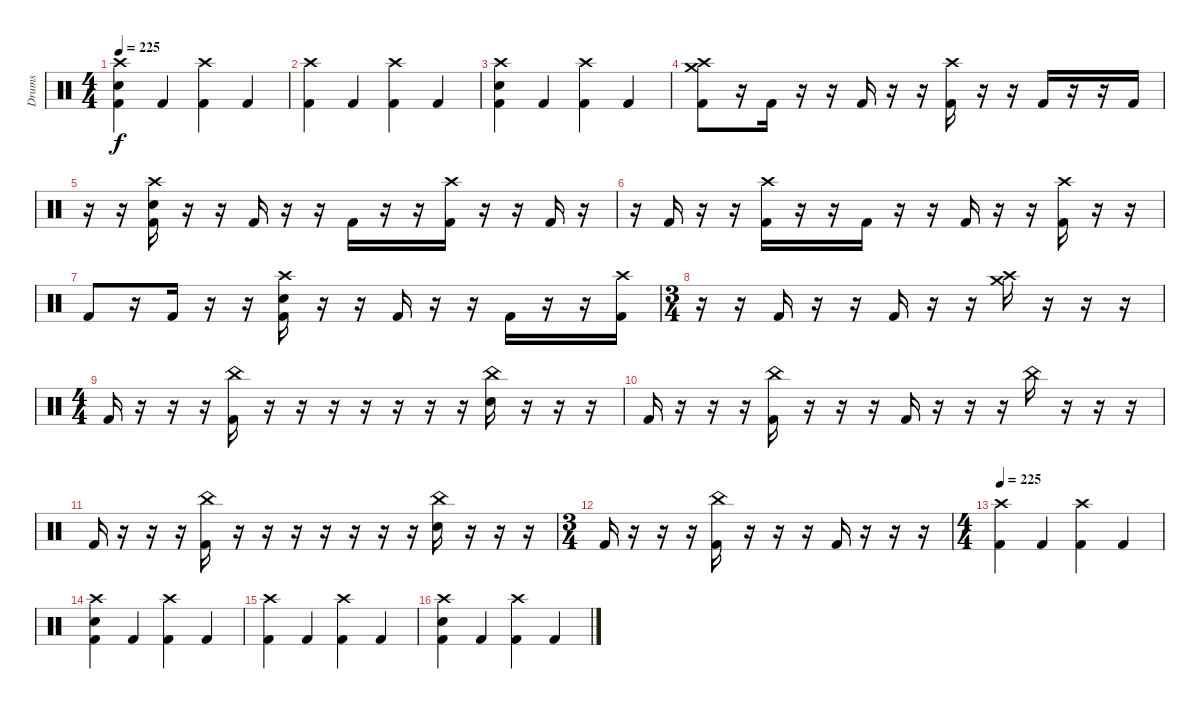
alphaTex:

\track ("Drums" "Drums") {instrument percussion}
\staff {score}
\articulation defaults
\ts (4 4)
\tempo 225
\clef neutral
\ks c
("Crash high (hit)" "Electric Snare (hit)" "Kick (hit) 2").4{dy f} "Kick (hit) 2".4 ("Crash high (hit)" "Kick (hit) 2").4 "Kick (hit) 2".4 |
("Crash high (hit)" "Kick (hit) 2").4 "Kick (hit) 2".4 ("Crash high (hit)" "Kick (hit) 2").4 "Kick (hit) 2".4 |
("Crash high (hit)" "Electric Snare (hit)" "Kick (hit) 2").4 "Kick (hit) 2".4 ("Crash high (hit)" "Kick (hit) 2").4 "Kick (hit) 2".4 |
("Crash high (hit)" "Crash medium (hit)" "Kick (hit) 2").8 r.16 "Kick (hit) 2".16 r.16 r.16 "Kick (hit) 2".16 r.16 r.16 ("Crash high (hit)" "Kick (hit) 2").16 r.16 r.16 "Kick (hit) 2".16 r.16 r.16 "Kick (hit) 2".16 |
r.16 r.16 ("Crash high (hit)" "Electric Snare (hit)" "Kick (hit) 2").16 r.16 r.16 "Kick (hit) 2".16 r.16 r.16 "Kick (hit) 2".16 r.16 r.16 ("Crash high (hit)" "Kick (hit) 2").16 r.16 r.16 "Kick (hit) 2".16 r.16 |
r.16 "Kick (hit) 2".16 r.16 r.16 ("Crash high (hit)" "Kick (hit) 2").16 r.16 r.16 "Kick (hit) 2".16 r.16 r.16 "Kick (hit) 2".16 r.16 r.16 ("Crash high (hit)" "Kick (hit) 2").16 r.16 r.16 |
"Kick (hit) 2".8 r.16 "Kick (hit) 2".16 r.16 r.16 ("Crash high (hit)" "Electric Snare (hit)" "Kick (hit) 2").16 r.16 r.16 "Kick (hit) 2".16 r.16 r.16 "Kick (hit) 2".16 r.16 r.16 ("Crash high (hit)" "Kick (hit) 2").16 |
\ts (3 4)
r.16 r.16 "Kick (hit) 2".16 r.16 r.16 "Kick (hit) 2".16 r.16 r.16 ("Crash high (hit)" "Crash medium (hit)").16 r.16 r.16 r.16 |
\ts (4 4)
"Kick (hit) 2".16 r.16 r.16 r.16 ("China (hit)" "Kick (hit) 2").16 r.16 r.16 r.16 r.16 r.16 r.16 r.16 ("China (hit)" "Electric Snare (hit)").16 r.16 r.16 r.16 |
"Kick (hit) 2".16 r.16 r.16 r.16 ("China (hit)" "Kick (hit) 2").16 r.16 r.16 r.16 "Kick (hit) 2".16 r.16 r.16 r.16 "China (hit)".16 r.16 r.16 r.16 |
"Kick (hit) 2".16 r.16 r.16 r.16 ("China (hit)" "Kick (hit) 2").16 r.16 r.16 r.16 r.16 r.16 r.16 r.16 ("China (hit)" "Electric Snare (hit)").16 r.16 r.16 r.16 |
\ts (3 4)
"Kick (hit) 2".16 r.16 r.16 r.16 ("China (hit)" "Kick (hit) 2").16 r.16 r.16 r.16 "Kick (hit) 2".16 r.16 r.16 r.16 |
\ts (4 4)
\tempo 225
("Crash high (hit)" "Kick (hit) 2").4 "Kick (hit) 2".4 ("Crash high (hit)" "Kick (hit) 2").4 "Kick (hit) 2".4 |
("Crash high (hit)" "Electric Snare (hit)" "Kick (hit) 2").4 "Kick (hit) 2".4 ("Crash high (hit)" "Kick (hit) 2").4 "Kick (hit) 2".4 |
("Crash high (hit)" "Kick (hit) 2").4 "Kick (hit) 2".4 ("Crash high (hit)" "Kick (hit) 2").4 "Kick (hit) 2".4 |
("Crash high (hit)" "Electric Snare (hit)" "Kick (hit) 2").4 "Kick (hit) 2".4 ("Crash high (hit)" "Kick (hit) 2").4 "Kick (hit) 2".4
